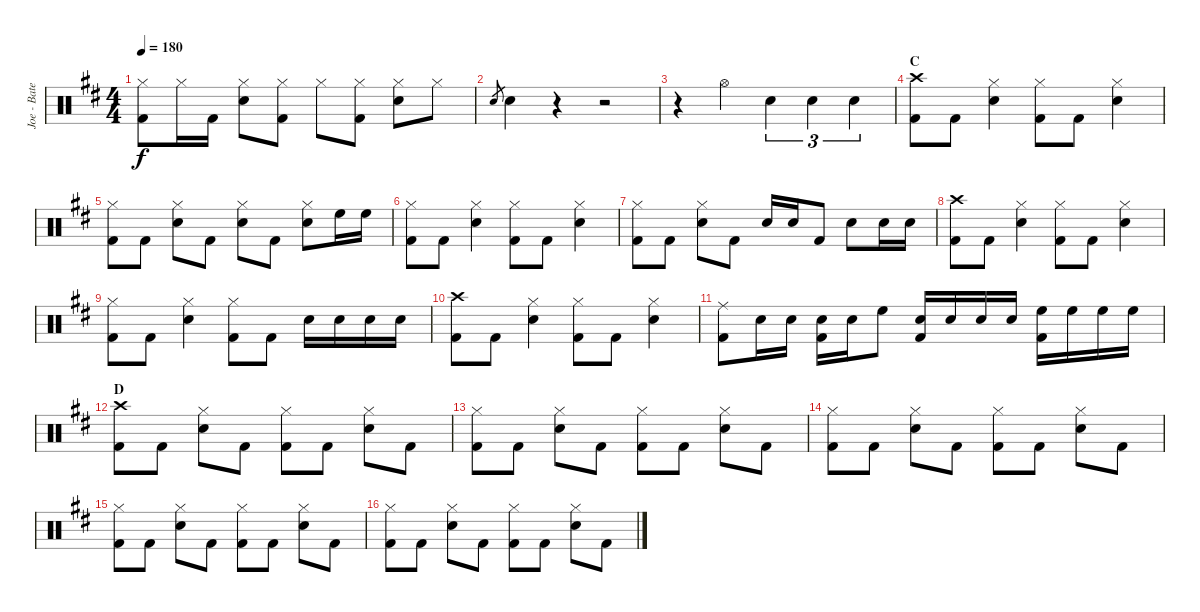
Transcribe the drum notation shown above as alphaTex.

\track ("Joe - Batería -" "Joe - Bate") {instrument percussion}
\staff {score}
\articulation defaults
\ts (4 4)
\tempo 180
\clef neutral
\ks bminor
("Hi-Hat (closed)" "Kick (hit) 2").8{dy f} "Hi-Hat (closed)".16 "Kick (hit) 2".16 ("Hi-Hat (closed)" "Snare (hit) 2").8 ("Hi-Hat (closed)" "Kick (hit) 2").8 "Hi-Hat (closed)".8 ("Hi-Hat (closed)" "Kick (hit) 2").8 ("Hi-Hat (closed)" "Snare (hit) 2").8 "Hi-Hat (closed)".8 |
"Snare (hit) 2".8{gr} "Snare (hit) 2".4 r.4 r.2 |
r.4 "Hi-Hat (open)".4 "Snare (hit) 2".4{tu (3 2)} "Snare (hit) 2".4{tu (3 2)} "Snare (hit) 2".4{tu (3 2)} |
\section ("" "C")
("Crash high (hit)" "Kick (hit) 2").8 "Kick (hit) 2".8 ("Hi-Hat (closed)" "Snare (hit) 2").4 ("Hi-Hat (closed)" "Kick (hit) 2").8 "Kick (hit) 2".8 ("Hi-Hat (closed)" "Snare (hit) 2").4 |
("Hi-Hat (closed)" "Kick (hit) 2").8 "Kick (hit) 2".8 ("Hi-Hat (closed)" "Snare (hit) 2").8 "Kick (hit) 2".8 ("Hi-Hat (closed)" "Snare (hit) 2").8 "Kick (hit) 2".8 ("Hi-Hat (closed)" "Snare (hit) 2").8 "High Floor Tom (hit)".16 "High Floor Tom (hit)".16 |
("Hi-Hat (closed)" "Kick (hit) 2").8 "Kick (hit) 2".8 ("Hi-Hat (closed)" "Snare (hit) 2").4 ("Hi-Hat (closed)" "Kick (hit) 2").8 "Kick (hit) 2".8 ("Hi-Hat (closed)" "Snare (hit) 2").4 |
("Hi-Hat (closed)" "Kick (hit) 2").8 "Kick (hit) 2".8 ("Hi-Hat (closed)" "Snare (hit) 2").8 "Kick (hit) 2".8 "Snare (hit) 2".16 "Snare (hit) 2".16 "Kick (hit) 2".8 "Snare (hit) 2".8 "Snare (hit) 2".16 "Snare (hit) 2".16 |
("Crash high (hit)" "Kick (hit) 2").8 "Kick (hit) 2".8 ("Hi-Hat (closed)" "Snare (hit) 2").4 ("Hi-Hat (closed)" "Kick (hit) 2").8 "Kick (hit) 2".8 ("Hi-Hat (closed)" "Snare (hit) 2").4 |
("Hi-Hat (closed)" "Kick (hit) 2").8 "Kick (hit) 2".8 ("Hi-Hat (closed)" "Snare (hit) 2").4 ("Hi-Hat (closed)" "Kick (hit) 2").8 "Kick (hit) 2".8 "Snare (hit) 2".16 "Snare (hit) 2".16 "Snare (hit) 2".16 "Snare (hit) 2".16 |
("Crash high (hit)" "Kick (hit) 2").8 "Kick (hit) 2".8 ("Hi-Hat (closed)" "Snare (hit) 2").4 ("Hi-Hat (closed)" "Kick (hit) 2").8 "Kick (hit) 2".8 ("Hi-Hat (closed)" "Snare (hit) 2").4 |
("Ride (middle)" "Kick (hit) 2").8 "Snare (hit) 2".16 "Snare (hit) 2".16 ("Snare (hit) 2" "Kick (hit) 2").16 "Snare (hit) 2".16 "High Floor Tom (hit)".8 ("Snare (hit) 2" "Kick (hit) 2").16 "Snare (hit) 2".16 "Snare (hit) 2".16 "Snare (hit) 2".16 ("High Floor Tom (hit)" "Kick (hit) 2").16 "High Floor Tom (hit)".16 "High Floor Tom (hit)".16 "High Floor Tom (hit)".16 |
\section ("" "D")
("Crash high (hit)" "Kick (hit) 2").8 "Kick (hit) 2".8 ("Hi-Hat (closed)" "Snare (hit) 2").8 "Kick (hit) 2".8 ("Hi-Hat (closed)" "Kick (hit) 2").8 "Kick (hit) 2".8 ("Hi-Hat (closed)" "Snare (hit) 2").8 "Kick (hit) 2".8 |
("Hi-Hat (closed)" "Kick (hit) 2").8 "Kick (hit) 2".8 ("Hi-Hat (closed)" "Snare (hit) 2").8 "Kick (hit) 2".8 ("Hi-Hat (closed)" "Kick (hit) 2").8 "Kick (hit) 2".8 ("Hi-Hat (closed)" "Snare (hit) 2").8 "Kick (hit) 2".8 |
("Hi-Hat (closed)" "Kick (hit) 2").8 "Kick (hit) 2".8 ("Hi-Hat (closed)" "Snare (hit) 2").8 "Kick (hit) 2".8 ("Hi-Hat (closed)" "Kick (hit) 2").8 "Kick (hit) 2".8 ("Hi-Hat (closed)" "Snare (hit) 2").8 "Kick (hit) 2".8 |
("Hi-Hat (closed)" "Kick (hit) 2").8 "Kick (hit) 2".8 ("Hi-Hat (closed)" "Snare (hit) 2").8 "Kick (hit) 2".8 ("Hi-Hat (closed)" "Kick (hit) 2").8 "Kick (hit) 2".8 ("Hi-Hat (closed)" "Snare (hit) 2").8 "Kick (hit) 2".8 |
("Hi-Hat (closed)" "Kick (hit) 2").8 "Kick (hit) 2".8 ("Hi-Hat (closed)" "Snare (hit) 2").8 "Kick (hit) 2".8 ("Hi-Hat (closed)" "Kick (hit) 2").8 "Kick (hit) 2".8 ("Hi-Hat (closed)" "Snare (hit) 2").8 "Kick (hit) 2".8
